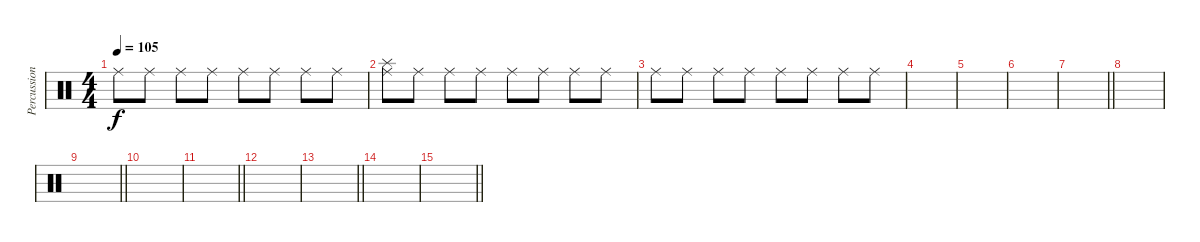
\track ("Percussion" "Percussion") {instrument percussion}
\staff {score}
\articulation defaults
\ts (4 4)
\tempo 105
\clef neutral
\ks c "Ride (middle)".8{dy f} "Ride (middle)".8 "Ride (middle)".8 "Ride (middle)".8 "Ride (middle)".8 "Ride (middle)".8 "Ride (middle)".8 "Ride (middle)".8
|
("Splash (hit)" "Ride (middle)").8 "Ride (middle)".8 "Ride (middle)".8 "Ride (middle)".8 "Ride (middle)".8 "Ride (middle)".8 "Ride (middle)".8 "Ride (middle)".8 |
"Ride (middle)".8 "Ride (middle)".8 "Ride (middle)".8 "Ride (middle)".8 "Ride (middle)".8 "Ride (middle)".8 "Ride (middle)".8 "Ride (middle)".8 |
|
|
|
\barLineRight lightlight
|
|
\barLineRight lightlight
|
|
\barLineRight lightlight
|
|
\barLineRight lightlight
|
|
\barLineRight lightlight
